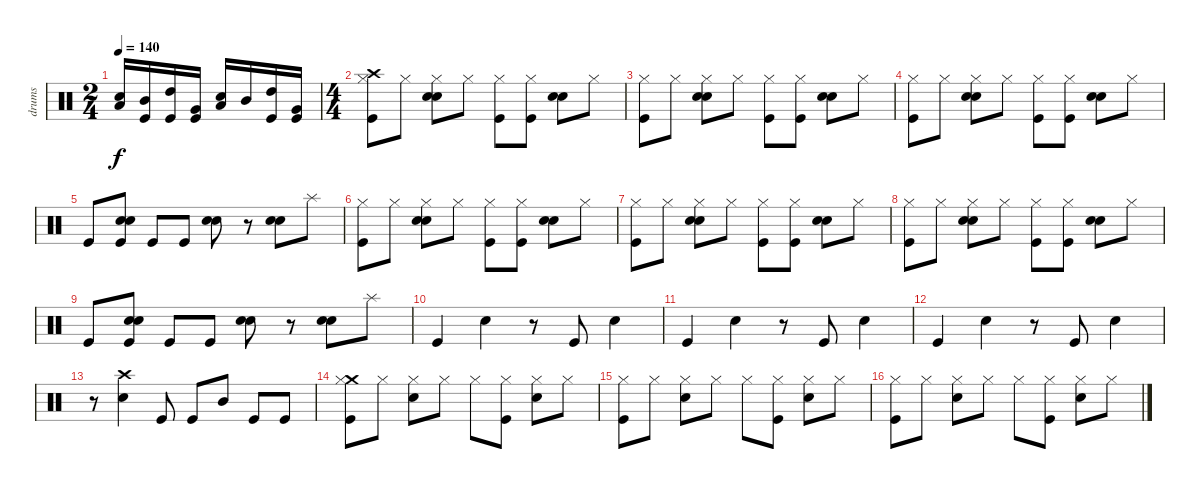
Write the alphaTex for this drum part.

\track ("drums" "drums") {instrument percussion}
\staff {score}
\articulation defaults
\ts (2 4)
\tempo 140
\clef neutral
\ks c
("Low Tom (hit)" "Snare (hit) 2").16{dy f} ("Mid Tom (hit)" "Kick (hit)").16 ("High Tom (hit)" "Kick (hit)").16 ("Very Low Tom (hit)" "Kick (hit)").16 ("Low Tom (hit)" "Snare (hit) 2").16 "Mid Tom (hit)".16 ("High Tom (hit)" "Kick (hit)").16 ("Very Low Tom (hit)" "Kick (hit)").16 |
\ts (4 4)
("Crash high (hit)" "Hi-Hat (closed)" "Kick (hit)").8 "Hi-Hat (closed)".8 ("Hi-Hat (closed)" "Snare (hit) 2" "Electric Snare (hit)").8 "Hi-Hat (closed)".8 ("Hi-Hat (closed)" "Kick (hit)").8 ("Hi-Hat (closed)" "Kick (hit)").8 ("Snare (hit) 2" "Electric Snare (hit)").8 "Hi-Hat (closed)".8 |
("Hi-Hat (closed)" "Kick (hit)").8 "Hi-Hat (closed)".8 ("Hi-Hat (closed)" "Snare (hit) 2" "Electric Snare (hit)").8 "Hi-Hat (closed)".8 ("Hi-Hat (closed)" "Kick (hit)").8 ("Hi-Hat (closed)" "Kick (hit)").8 ("Snare (hit) 2" "Electric Snare (hit)").8 "Hi-Hat (closed)".8 |
("Hi-Hat (closed)" "Kick (hit)").8 "Hi-Hat (closed)".8 ("Hi-Hat (closed)" "Snare (hit) 2" "Electric Snare (hit)").8 "Hi-Hat (closed)".8 ("Hi-Hat (closed)" "Kick (hit)").8 ("Hi-Hat (closed)" "Kick (hit)").8 ("Snare (hit) 2" "Electric Snare (hit)").8 "Hi-Hat (closed)".8 |
"Kick (hit)".8 ("Electric Snare (hit)" "Snare (hit) 2" "Kick (hit)").8 "Kick (hit)".8 "Kick (hit)".8 ("Electric Snare (hit)" "Snare (hit) 2").8 r.8 ("Electric Snare (hit)" "Snare (hit) 2").8 "Splash (hit)".8 |
("Hi-Hat (closed)" "Kick (hit)").8 "Hi-Hat (closed)".8 ("Hi-Hat (closed)" "Snare (hit) 2" "Electric Snare (hit)").8 "Hi-Hat (closed)".8 ("Hi-Hat (closed)" "Kick (hit)").8 ("Hi-Hat (closed)" "Kick (hit)").8 ("Snare (hit) 2" "Electric Snare (hit)").8 "Hi-Hat (closed)".8 |
("Hi-Hat (closed)" "Kick (hit)").8 "Hi-Hat (closed)".8 ("Hi-Hat (closed)" "Snare (hit) 2" "Electric Snare (hit)").8 "Hi-Hat (closed)".8 ("Hi-Hat (closed)" "Kick (hit)").8 ("Hi-Hat (closed)" "Kick (hit)").8 ("Snare (hit) 2" "Electric Snare (hit)").8 "Hi-Hat (closed)".8 |
("Hi-Hat (closed)" "Kick (hit)").8 "Hi-Hat (closed)".8 ("Hi-Hat (closed)" "Snare (hit) 2" "Electric Snare (hit)").8 "Hi-Hat (closed)".8 ("Hi-Hat (closed)" "Kick (hit)").8 ("Hi-Hat (closed)" "Kick (hit)").8 ("Snare (hit) 2" "Electric Snare (hit)").8 "Hi-Hat (closed)".8 |
"Kick (hit)".8 ("Electric Snare (hit)" "Snare (hit) 2" "Kick (hit)").8 "Kick (hit)".8 "Kick (hit)".8 ("Electric Snare (hit)" "Snare (hit) 2").8 r.8 ("Electric Snare (hit)" "Snare (hit) 2").8 "Splash (hit)".8 |
"Kick (hit)".4 "Snare (hit) 2".4 r.8 "Kick (hit)".8 "Snare (hit) 2".4 |
"Kick (hit)".4 "Snare (hit) 2".4 r.8 "Kick (hit)".8 "Snare (hit) 2".4 |
"Kick (hit)".4 "Snare (hit) 2".4 r.8 "Kick (hit)".8 "Snare (hit) 2".4 |
r.8 ("Crash high (hit)" "Snare (hit) 2").4 "Kick (hit)".8 "Kick (hit)".8 "Mid Tom (hit)".8 "Kick (hit)".8 "Kick (hit)".8 |
("Crash medium (hit)" "Hi-Hat (closed)" "Kick (hit)").8 "Hi-Hat (closed)".8 ("Hi-Hat (closed)" "Snare (hit) 2").8 "Hi-Hat (closed)".8 "Hi-Hat (closed)".8 ("Hi-Hat (closed)" "Kick (hit)").8 ("Hi-Hat (closed)" "Snare (hit) 2").8 "Hi-Hat (closed)".8 |
("Hi-Hat (closed)" "Kick (hit)").8 "Hi-Hat (closed)".8 ("Hi-Hat (closed)" "Snare (hit) 2").8 "Hi-Hat (closed)".8 "Hi-Hat (closed)".8 ("Hi-Hat (closed)" "Kick (hit)").8 ("Hi-Hat (closed)" "Snare (hit) 2").8 "Hi-Hat (closed)".8 |
("Hi-Hat (closed)" "Kick (hit)").8 "Hi-Hat (closed)".8 ("Hi-Hat (closed)" "Snare (hit) 2").8 "Hi-Hat (closed)".8 "Hi-Hat (closed)".8 ("Hi-Hat (closed)" "Kick (hit)").8 ("Hi-Hat (closed)" "Snare (hit) 2").8 "Hi-Hat (closed)".8
